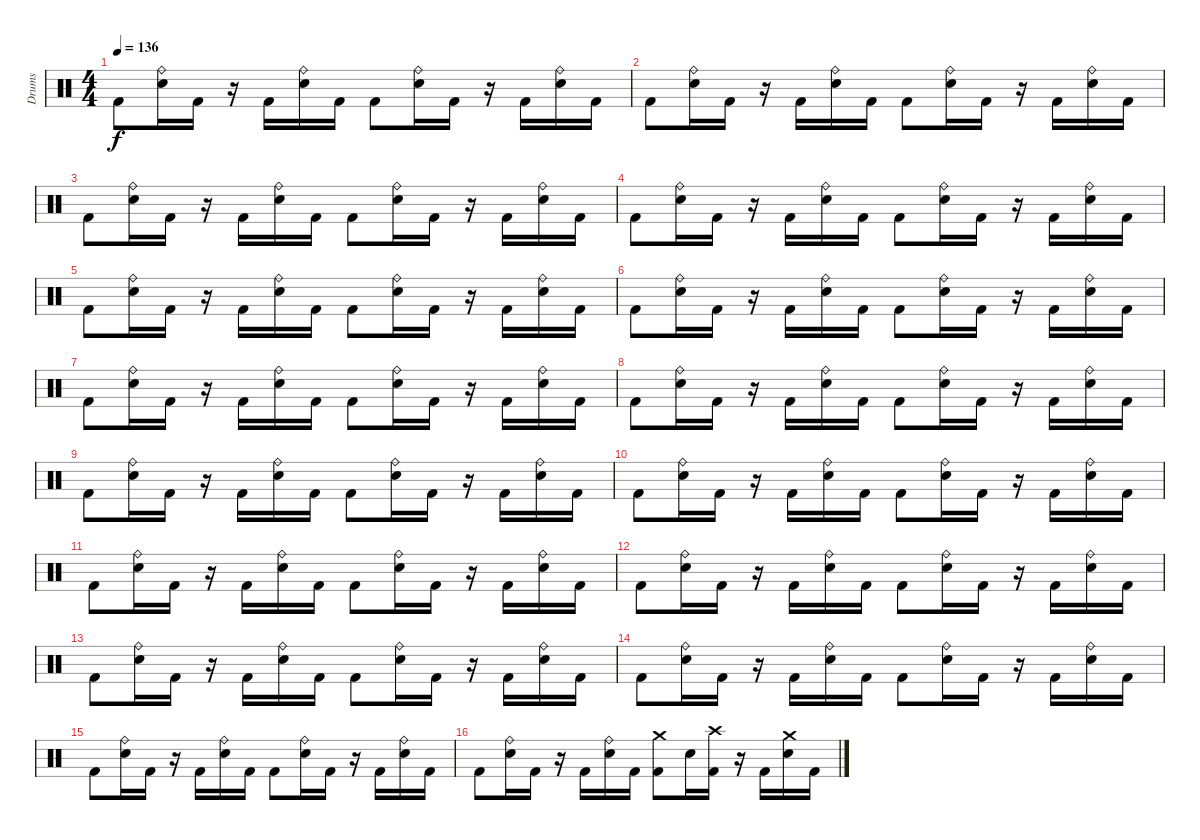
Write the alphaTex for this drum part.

\track ("Drums" "Drums") {instrument percussion}
\staff {score}
\articulation defaults
\ts (4 4)
\tempo 136
\clef neutral
\ks c "Kick (hit) 2".8{dy f}
("Ride (bell)" "Electric Snare (hit)").16 "Kick (hit) 2".16 r.16 "Kick (hit) 2".16 ("Ride (bell)" "Electric Snare (hit)").16 "Kick (hit) 2".16 "Kick (hit) 2".8 ("Ride (bell)" "Electric Snare (hit)").16 "Kick (hit) 2".16 r.16 "Kick (hit) 2".16 ("Ride (bell)" "Electric Snare (hit)").16 "Kick (hit) 2".16 |
"Kick (hit) 2".8 ("Ride (bell)" "Electric Snare (hit)").16 "Kick (hit) 2".16 r.16 "Kick (hit) 2".16 ("Ride (bell)" "Electric Snare (hit)").16 "Kick (hit) 2".16 "Kick (hit) 2".8 ("Ride (bell)" "Electric Snare (hit)").16 "Kick (hit) 2".16 r.16 "Kick (hit) 2".16 ("Ride (bell)" "Electric Snare (hit)").16 "Kick (hit) 2".16 |
"Kick (hit) 2".8 ("Ride (bell)" "Electric Snare (hit)").16 "Kick (hit) 2".16 r.16 "Kick (hit) 2".16 ("Ride (bell)" "Electric Snare (hit)").16 "Kick (hit) 2".16 "Kick (hit) 2".8 ("Ride (bell)" "Electric Snare (hit)").16 "Kick (hit) 2".16 r.16 "Kick (hit) 2".16 ("Ride (bell)" "Electric Snare (hit)").16 "Kick (hit) 2".16 |
"Kick (hit) 2".8 ("Ride (bell)" "Electric Snare (hit)").16 "Kick (hit) 2".16 r.16 "Kick (hit) 2".16 ("Ride (bell)" "Electric Snare (hit)").16 "Kick (hit) 2".16 "Kick (hit) 2".8 ("Ride (bell)" "Electric Snare (hit)").16 "Kick (hit) 2".16 r.16 "Kick (hit) 2".16 ("Ride (bell)" "Electric Snare (hit)").16 "Kick (hit) 2".16 |
"Kick (hit) 2".8 ("Ride (bell)" "Electric Snare (hit)").16 "Kick (hit) 2".16 r.16 "Kick (hit) 2".16 ("Ride (bell)" "Electric Snare (hit)").16 "Kick (hit) 2".16 "Kick (hit) 2".8 ("Ride (bell)" "Electric Snare (hit)").16 "Kick (hit) 2".16 r.16 "Kick (hit) 2".16 ("Ride (bell)" "Electric Snare (hit)").16 "Kick (hit) 2".16 |
"Kick (hit) 2".8 ("Ride (bell)" "Electric Snare (hit)").16 "Kick (hit) 2".16 r.16 "Kick (hit) 2".16 ("Ride (bell)" "Electric Snare (hit)").16 "Kick (hit) 2".16 "Kick (hit) 2".8 ("Ride (bell)" "Electric Snare (hit)").16 "Kick (hit) 2".16 r.16 "Kick (hit) 2".16 ("Ride (bell)" "Electric Snare (hit)").16 "Kick (hit) 2".16 |
"Kick (hit) 2".8 ("Ride (bell)" "Electric Snare (hit)").16 "Kick (hit) 2".16 r.16 "Kick (hit) 2".16 ("Ride (bell)" "Electric Snare (hit)").16 "Kick (hit) 2".16 "Kick (hit) 2".8 ("Ride (bell)" "Electric Snare (hit)").16 "Kick (hit) 2".16 r.16 "Kick (hit) 2".16 ("Ride (bell)" "Electric Snare (hit)").16 "Kick (hit) 2".16 |
"Kick (hit) 2".8 ("Ride (bell)" "Electric Snare (hit)").16 "Kick (hit) 2".16 r.16 "Kick (hit) 2".16 ("Ride (bell)" "Electric Snare (hit)").16 "Kick (hit) 2".16 "Kick (hit) 2".8 ("Ride (bell)" "Electric Snare (hit)").16 "Kick (hit) 2".16 r.16 "Kick (hit) 2".16 ("Ride (bell)" "Electric Snare (hit)").16 "Kick (hit) 2".16 |
"Kick (hit) 2".8 ("Ride (bell)" "Electric Snare (hit)").16 "Kick (hit) 2".16 r.16 "Kick (hit) 2".16 ("Ride (bell)" "Electric Snare (hit)").16 "Kick (hit) 2".16 "Kick (hit) 2".8 ("Ride (bell)" "Electric Snare (hit)").16 "Kick (hit) 2".16 r.16 "Kick (hit) 2".16 ("Ride (bell)" "Electric Snare (hit)").16 "Kick (hit) 2".16 |
"Kick (hit) 2".8 ("Ride (bell)" "Electric Snare (hit)").16 "Kick (hit) 2".16 r.16 "Kick (hit) 2".16 ("Ride (bell)" "Electric Snare (hit)").16 "Kick (hit) 2".16 "Kick (hit) 2".8 ("Ride (bell)" "Electric Snare (hit)").16 "Kick (hit) 2".16 r.16 "Kick (hit) 2".16 ("Ride (bell)" "Electric Snare (hit)").16 "Kick (hit) 2".16 |
"Kick (hit) 2".8 ("Ride (bell)" "Electric Snare (hit)").16 "Kick (hit) 2".16 r.16 "Kick (hit) 2".16 ("Ride (bell)" "Electric Snare (hit)").16 "Kick (hit) 2".16 "Kick (hit) 2".8 ("Ride (bell)" "Electric Snare (hit)").16 "Kick (hit) 2".16 r.16 "Kick (hit) 2".16 ("Ride (bell)" "Electric Snare (hit)").16 "Kick (hit) 2".16 |
"Kick (hit) 2".8 ("Ride (bell)" "Electric Snare (hit)").16 "Kick (hit) 2".16 r.16 "Kick (hit) 2".16 ("Ride (bell)" "Electric Snare (hit)").16 "Kick (hit) 2".16 "Kick (hit) 2".8 ("Ride (bell)" "Electric Snare (hit)").16 "Kick (hit) 2".16 r.16 "Kick (hit) 2".16 ("Ride (bell)" "Electric Snare (hit)").16 "Kick (hit) 2".16 |
"Kick (hit) 2".8 ("Ride (bell)" "Electric Snare (hit)").16 "Kick (hit) 2".16 r.16 "Kick (hit) 2".16 ("Ride (bell)" "Electric Snare (hit)").16 "Kick (hit) 2".16 "Kick (hit) 2".8 ("Ride (bell)" "Electric Snare (hit)").16 "Kick (hit) 2".16 r.16 "Kick (hit) 2".16 ("Ride (bell)" "Electric Snare (hit)").16 "Kick (hit) 2".16 |
"Kick (hit) 2".8 ("Ride (bell)" "Electric Snare (hit)").16 "Kick (hit) 2".16 r.16 "Kick (hit) 2".16 ("Ride (bell)" "Electric Snare (hit)").16 "Kick (hit) 2".16 "Kick (hit) 2".8 ("Ride (bell)" "Electric Snare (hit)").16 "Kick (hit) 2".16 r.16 "Kick (hit) 2".16 ("Ride (bell)" "Electric Snare (hit)").16 "Kick (hit) 2".16 |
"Kick (hit) 2".8 ("Ride (bell)" "Electric Snare (hit)").16 "Kick (hit) 2".16 r.16 "Kick (hit) 2".16 ("Ride (bell)" "Electric Snare (hit)").16 "Kick (hit) 2".16 "Kick (hit) 2".8 ("Ride (bell)" "Electric Snare (hit)").16 "Kick (hit) 2".16 r.16 "Kick (hit) 2".16 ("Ride (bell)" "Electric Snare (hit)").16 "Kick (hit) 2".16 |
"Kick (hit) 2".8 ("Ride (bell)" "Electric Snare (hit)").16 "Kick (hit) 2".16 r.16 "Kick (hit) 2".16 ("Ride (bell)" "Electric Snare (hit)").16 "Kick (hit) 2".16 ("Crash medium (hit)" "Kick (hit) 2").8 "Electric Snare (hit)".16 ("Crash high (hit)" "Kick (hit) 2").16 r.16 "Kick (hit) 2".16 ("Crash medium (hit)" "Electric Snare (hit)").16 "Kick (hit) 2".16
